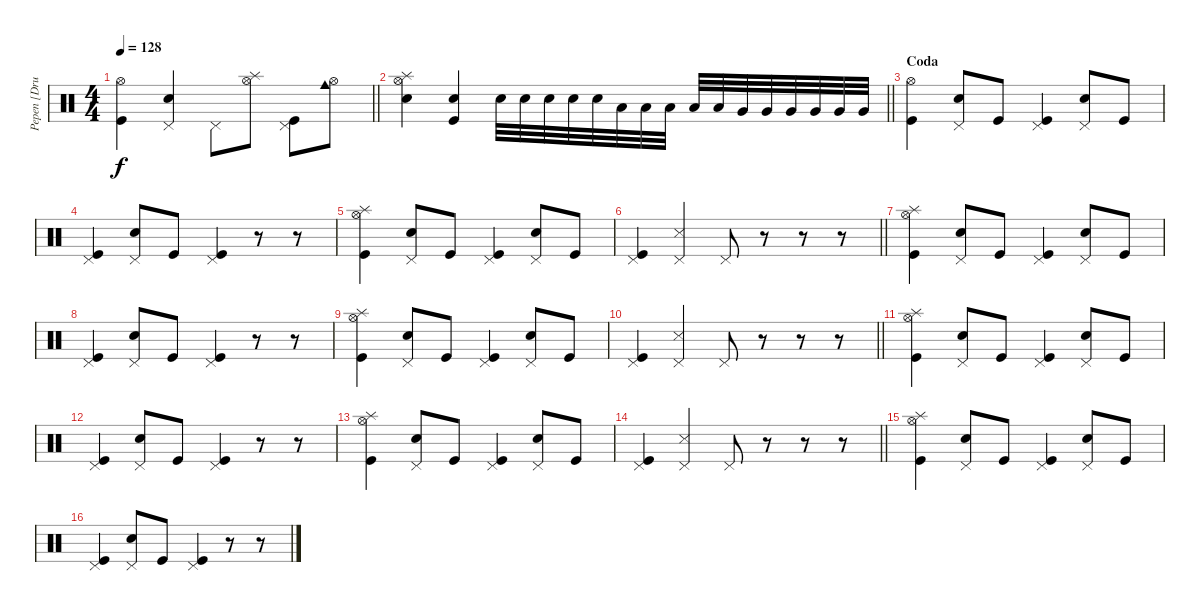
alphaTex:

\track ("Pepen [Drum]" "Pepen [Dru") {instrument percussion}
\staff {score}
\articulation defaults
\ts (4 4)
\tempo 128
\clef neutral
\barLineRight lightlight
\ks c
("Hi-Hat (open)" "Kick (hit)").4{dy f} ("Pedal Hi-Hat (hit)" "Electric Snare (hit)").4 "Pedal Hi-Hat (hit)".8 ("Hi-Hat (open)" "Splash (hit)").8 ("Pedal Hi-Hat (hit)" "Kick (hit)").8 ("Hi-Hat (open)" "Cowbell medium (hit)").8 |
\barLineRight lightlight
("Hi-Hat (open)" "Splash (hit)" "Electric Snare (hit)").4 ("Kick (hit)" "Snare (hit) 2").4 "Electric Snare (hit)".32 "Electric Snare (hit)".32 "Electric Snare (hit)".32 "Electric Snare (hit)".32 "Electric Snare (hit)".32 "Low Floor Tom (hit)".32 "Low Floor Tom (hit)".32 "Low Floor Tom (hit)".32 "Low Floor Tom (hit)".32 "Low Floor Tom (hit)".32 "Very Low Tom (hit)".32 "Very Low Tom (hit)".32 "Very Low Tom (hit)".32 "Very Low Tom (hit)".32 "Very Low Tom (hit)".32 "Very Low Tom (hit)".32 |
\section ("" "Coda")
("Hi-Hat (open)" "Kick (hit)").4 ("Pedal Hi-Hat (hit)" "Electric Snare (hit)").8 "Kick (hit)".8 ("Pedal Hi-Hat (hit)" "Kick (hit)").4 ("Pedal Hi-Hat (hit)" "Electric Snare (hit)").8 "Kick (hit)".8 |
("Pedal Hi-Hat (hit)" "Kick (hit)").4 ("Pedal Hi-Hat (hit)" "Electric Snare (hit)").8 "Kick (hit)".8 ("Pedal Hi-Hat (hit)" "Kick (hit)").4 r.8 r.8 |
("Hi-Hat (open)" "Kick (hit)" "Splash (hit)").4 ("Pedal Hi-Hat (hit)" "Electric Snare (hit)").8 "Kick (hit)".8 ("Pedal Hi-Hat (hit)" "Kick (hit)").4 ("Pedal Hi-Hat (hit)" "Electric Snare (hit)").8 "Kick (hit)".8 |
\barLineRight lightlight
("Pedal Hi-Hat (hit)" "Kick (hit)").4 ("Pedal Hi-Hat (hit)" "Snare (side stick) 3").4 "Pedal Hi-Hat (hit)".8 r.8 r.8 r.8 |
("Hi-Hat (open)" "Kick (hit)" "Splash (hit)").4 ("Pedal Hi-Hat (hit)" "Electric Snare (hit)").8 "Kick (hit)".8 ("Pedal Hi-Hat (hit)" "Kick (hit)").4 ("Pedal Hi-Hat (hit)" "Electric Snare (hit)").8 "Kick (hit)".8 |
("Pedal Hi-Hat (hit)" "Kick (hit)").4 ("Pedal Hi-Hat (hit)" "Electric Snare (hit)").8 "Kick (hit)".8 ("Pedal Hi-Hat (hit)" "Kick (hit)").4 r.8 r.8 |
("Hi-Hat (open)" "Kick (hit)" "Splash (hit)").4 ("Pedal Hi-Hat (hit)" "Electric Snare (hit)").8 "Kick (hit)".8 ("Pedal Hi-Hat (hit)" "Kick (hit)").4 ("Pedal Hi-Hat (hit)" "Electric Snare (hit)").8 "Kick (hit)".8 |
\barLineRight lightlight
("Pedal Hi-Hat (hit)" "Kick (hit)").4 ("Pedal Hi-Hat (hit)" "Snare (side stick) 3").4 "Pedal Hi-Hat (hit)".8 r.8 r.8 r.8 |
("Hi-Hat (open)" "Kick (hit)" "Splash (hit)").4 ("Pedal Hi-Hat (hit)" "Electric Snare (hit)").8 "Kick (hit)".8 ("Pedal Hi-Hat (hit)" "Kick (hit)").4 ("Pedal Hi-Hat (hit)" "Electric Snare (hit)").8 "Kick (hit)".8 |
("Pedal Hi-Hat (hit)" "Kick (hit)").4 ("Pedal Hi-Hat (hit)" "Electric Snare (hit)").8 "Kick (hit)".8 ("Pedal Hi-Hat (hit)" "Kick (hit)").4 r.8 r.8 |
("Hi-Hat (open)" "Kick (hit)" "Splash (hit)").4 ("Pedal Hi-Hat (hit)" "Electric Snare (hit)").8 "Kick (hit)".8 ("Pedal Hi-Hat (hit)" "Kick (hit)").4 ("Pedal Hi-Hat (hit)" "Electric Snare (hit)").8 "Kick (hit)".8 |
\barLineRight lightlight
("Pedal Hi-Hat (hit)" "Kick (hit)").4 ("Pedal Hi-Hat (hit)" "Snare (side stick) 3").4 "Pedal Hi-Hat (hit)".8 r.8 r.8 r.8 |
("Hi-Hat (open)" "Kick (hit)" "Splash (hit)").4 ("Pedal Hi-Hat (hit)" "Electric Snare (hit)").8 "Kick (hit)".8 ("Pedal Hi-Hat (hit)" "Kick (hit)").4 ("Pedal Hi-Hat (hit)" "Electric Snare (hit)").8 "Kick (hit)".8 |
("Pedal Hi-Hat (hit)" "Kick (hit)").4 ("Pedal Hi-Hat (hit)" "Electric Snare (hit)").8 "Kick (hit)".8 ("Pedal Hi-Hat (hit)" "Kick (hit)").4 r.8 r.8
